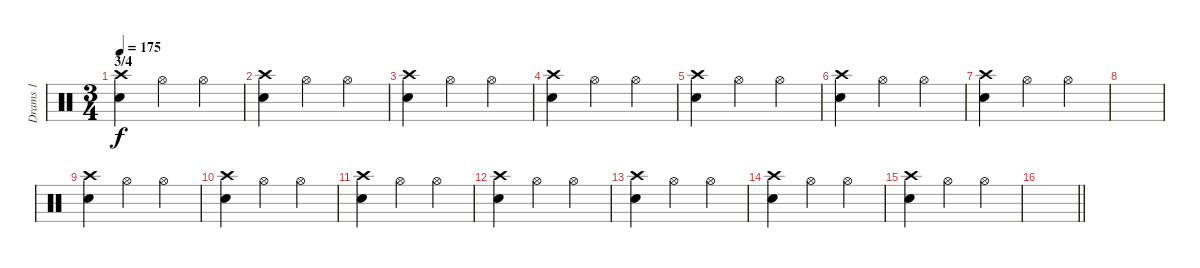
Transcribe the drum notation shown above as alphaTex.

\track ("Drams 1" "Drams 1") {instrument percussion}
\staff {score}
\articulation defaults
\ts (3 4)
\section ("" "3/4")
\tempo 175
\clef neutral
\ks c
("Snare (hit) 2" "Crash high (hit)").4{dy f} "Hi-Hat (open)".4 "Hi-Hat (open)".4 |
("Snare (hit) 2" "Crash high (hit)").4 "Hi-Hat (open)".4 "Hi-Hat (open)".4 |
("Snare (hit) 2" "Crash high (hit)").4 "Hi-Hat (open)".4 "Hi-Hat (open)".4 |
("Snare (hit) 2" "Crash high (hit)").4 "Hi-Hat (open)".4 "Hi-Hat (open)".4 |
("Snare (hit) 2" "Crash high (hit)").4 "Hi-Hat (open)".4 "Hi-Hat (open)".4 |
("Snare (hit) 2" "Crash high (hit)").4 "Hi-Hat (open)".4 "Hi-Hat (open)".4 |
("Snare (hit) 2" "Crash high (hit)").4 "Hi-Hat (open)".4 "Hi-Hat (open)".4 |
|
("Snare (hit) 2" "Crash high (hit)").4 "Hi-Hat (open)".4 "Hi-Hat (open)".4 |
("Snare (hit) 2" "Crash high (hit)").4 "Hi-Hat (open)".4 "Hi-Hat (open)".4 |
("Snare (hit) 2" "Crash high (hit)").4 "Hi-Hat (open)".4 "Hi-Hat (open)".4 |
("Snare (hit) 2" "Crash high (hit)").4 "Hi-Hat (open)".4 "Hi-Hat (open)".4 |
("Snare (hit) 2" "Crash high (hit)").4 "Hi-Hat (open)".4 "Hi-Hat (open)".4 |
("Snare (hit) 2" "Crash high (hit)").4 "Hi-Hat (open)".4 "Hi-Hat (open)".4 |
("Snare (hit) 2" "Crash high (hit)").4 "Hi-Hat (open)".4 "Hi-Hat (open)".4 |
\barLineRight lightlight
